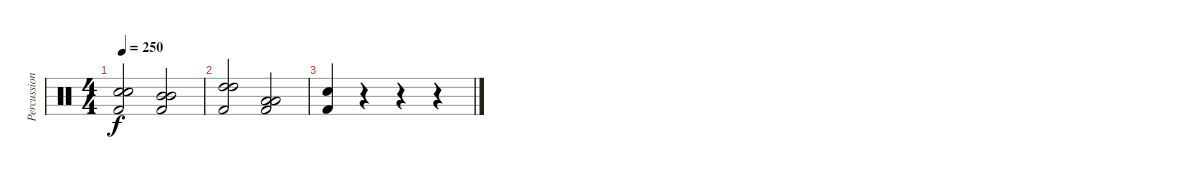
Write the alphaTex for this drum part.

\track ("Percussion" "Percussion") {instrument percussion}
\staff {score}
\articulation defaults
\ts (4 4)
\tempo 250
\clef neutral
\ks c
("Kick (hit) 2" "Electric Snare (hit)" "Electric Snare (hit)").2{dy f} ("Kick (hit) 2" "Mid Tom (hit)" "Mid Tom (hit)").2 |
("Kick (hit) 2" "High Tom (hit)" "High Tom (hit)").2 ("Kick (hit) 2" "Low Tom (hit)" "Low Tom (hit)").2 |
("Kick (hit) 2" "Electric Snare (hit)").4 r.4 r.4 r.4
